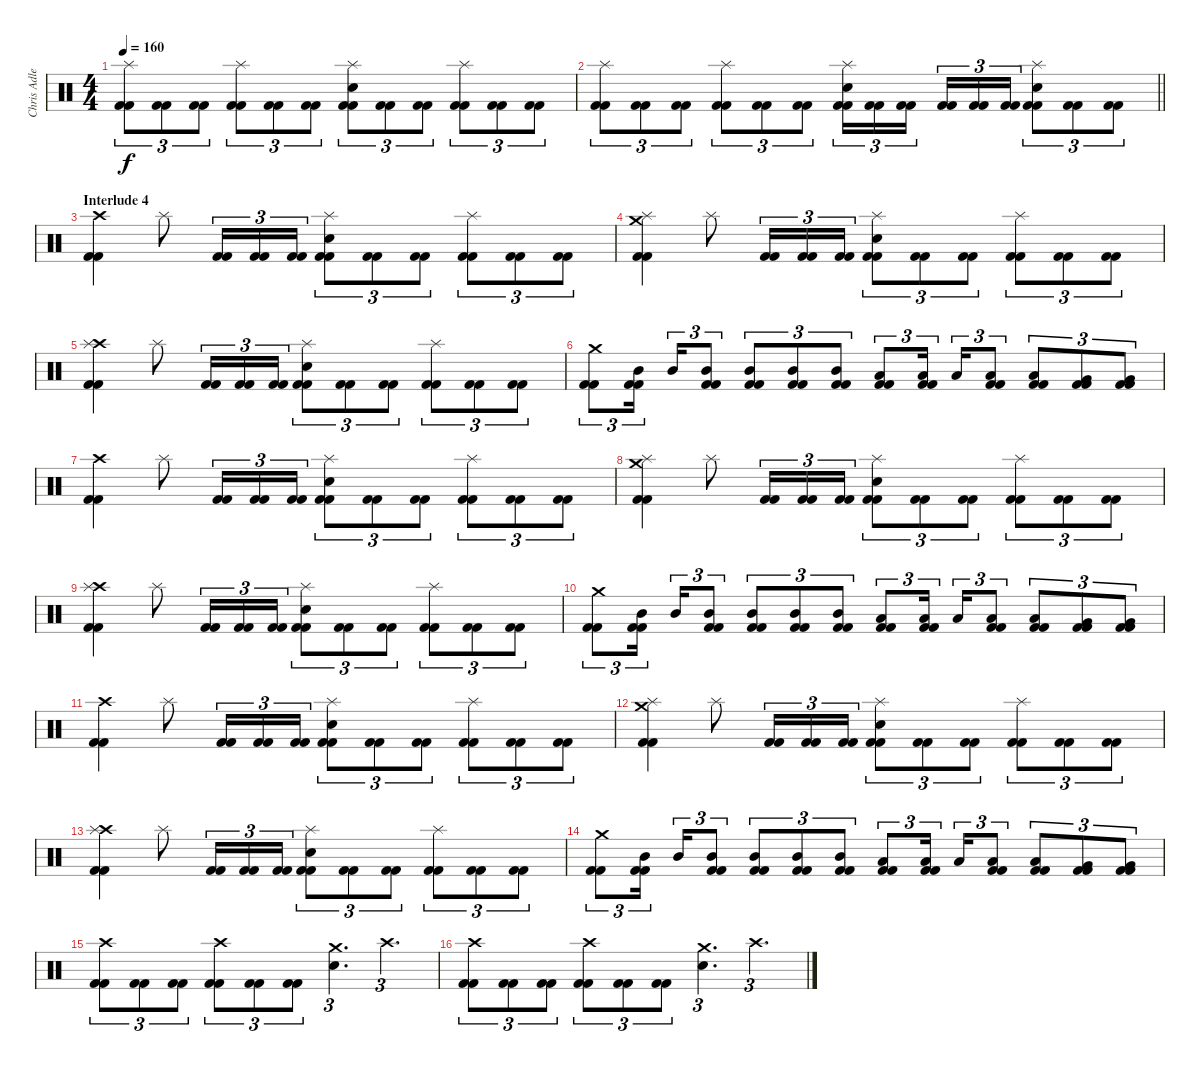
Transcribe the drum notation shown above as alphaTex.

\track ("Chris Adler" "Chris Adle") {instrument percussion}
\staff {score}
\articulation defaults
\ts (4 4)
\tempo 160
\clef neutral
\ks c
("Splash (hit)" "Kick (hit) 2" "Kick (hit) 2").8{tu (3 2) dy f} ("Kick (hit) 2" "Kick (hit) 2").8{tu (3 2)} ("Kick (hit) 2" "Kick (hit) 2").8{tu (3 2)} ("Splash (hit)" "Kick (hit) 2" "Kick (hit) 2").8{tu (3 2)} ("Kick (hit) 2" "Kick (hit) 2").8{tu (3 2)} ("Kick (hit) 2" "Kick (hit) 2").8{tu (3 2)} ("Splash (hit)" "Electric Snare (hit)" "Kick (hit) 2" "Kick (hit) 2").8{tu (3 2)} ("Kick (hit) 2" "Kick (hit) 2").8{tu (3 2)} ("Kick (hit) 2" "Kick (hit) 2").8{tu (3 2)} ("Splash (hit)" "Kick (hit) 2" "Kick (hit) 2").8{tu (3 2)} ("Kick (hit) 2" "Kick (hit) 2").8{tu (3 2)} ("Kick (hit) 2" "Kick (hit) 2").8{tu (3 2)} |
\barLineRight lightlight
("Splash (hit)" "Kick (hit) 2" "Kick (hit) 2").8{tu (3 2)} ("Kick (hit) 2" "Kick (hit) 2").8{tu (3 2)} ("Kick (hit) 2" "Kick (hit) 2").8{tu (3 2)} ("Splash (hit)" "Kick (hit) 2" "Kick (hit) 2").8{tu (3 2)} ("Kick (hit) 2" "Kick (hit) 2").8{tu (3 2)} ("Kick (hit) 2" "Kick (hit) 2").8{tu (3 2)} ("Splash (hit)" "Electric Snare (hit)" "Kick (hit) 2" "Kick (hit) 2").16{tu (3 2)} ("Kick (hit) 2" "Kick (hit) 2").16{tu (3 2)} ("Kick (hit) 2" "Kick (hit) 2").16{tu (3 2) beam splitsecondary} ("Kick (hit) 2" "Kick (hit) 2").16{tu (3 2)} ("Kick (hit) 2" "Kick (hit) 2").16{tu (3 2)} ("Kick (hit) 2" "Kick (hit) 2").16{tu (3 2)} ("Splash (hit)" "Electric Snare (hit)" "Kick (hit) 2" "Kick (hit) 2").8{tu (3 2)} ("Kick (hit) 2" "Kick (hit) 2").8{tu (3 2)} ("Kick (hit) 2" "Kick (hit) 2").8{tu (3 2)} |
\section ("" "Interlude 4")
("Crash high (hit)" "Kick (hit) 2" "Kick (hit) 2").4 "Splash (hit)".8 ("Kick (hit) 2" "Kick (hit) 2").16{tu (3 2)} ("Kick (hit) 2" "Kick (hit) 2").16{tu (3 2)} ("Kick (hit) 2" "Kick (hit) 2").16{tu (3 2)} ("Splash (hit)" "Electric Snare (hit)" "Kick (hit) 2" "Kick (hit) 2").8{tu (3 2)} ("Kick (hit) 2" "Kick (hit) 2").8{tu (3 2)} ("Kick (hit) 2" "Kick (hit) 2").8{tu (3 2)} ("Splash (hit)" "Kick (hit) 2" "Kick (hit) 2").8{tu (3 2)} ("Kick (hit) 2" "Kick (hit) 2").8{tu (3 2)} ("Kick (hit) 2" "Kick (hit) 2").8{tu (3 2)} |
("Crash medium (hit)" "Splash (hit)" "Kick (hit) 2" "Kick (hit) 2").4 "Splash (hit)".8 ("Kick (hit) 2" "Kick (hit) 2").16{tu (3 2)} ("Kick (hit) 2" "Kick (hit) 2").16{tu (3 2)} ("Kick (hit) 2" "Kick (hit) 2").16{tu (3 2)} ("Splash (hit)" "Electric Snare (hit)" "Kick (hit) 2" "Kick (hit) 2").8{tu (3 2)} ("Kick (hit) 2" "Kick (hit) 2").8{tu (3 2)} ("Kick (hit) 2" "Kick (hit) 2").8{tu (3 2)} ("Splash (hit)" "Kick (hit) 2" "Kick (hit) 2").8{tu (3 2)} ("Kick (hit) 2" "Kick (hit) 2").8{tu (3 2)} ("Kick (hit) 2" "Kick (hit) 2").8{tu (3 2)} |
("Crash high (hit)" "Splash (hit)" "Kick (hit) 2" "Kick (hit) 2").4 "Splash (hit)".8 ("Kick (hit) 2" "Kick (hit) 2").16{tu (3 2)} ("Kick (hit) 2" "Kick (hit) 2").16{tu (3 2)} ("Kick (hit) 2" "Kick (hit) 2").16{tu (3 2)} ("Splash (hit)" "Electric Snare (hit)" "Kick (hit) 2" "Kick (hit) 2").8{tu (3 2)} ("Kick (hit) 2" "Kick (hit) 2").8{tu (3 2)} ("Kick (hit) 2" "Kick (hit) 2").8{tu (3 2)} ("Splash (hit)" "Kick (hit) 2" "Kick (hit) 2").8{tu (3 2)} ("Kick (hit) 2" "Kick (hit) 2").8{tu (3 2)} ("Kick (hit) 2" "Kick (hit) 2").8{tu (3 2)} |
("Crash medium (hit)" "Kick (hit) 2" "Kick (hit) 2").8{tu (3 2)} ("Mid Tom (hit)" "Kick (hit) 2" "Kick (hit) 2").16{tu (3 2) beam splitsecondary} "Mid Tom (hit)".16{tu (3 2)} ("Mid Tom (hit)" "Kick (hit) 2" "Kick (hit) 2").8{tu (3 2)} ("Mid Tom (hit)" "Kick (hit) 2" "Kick (hit) 2").8{tu (3 2)} ("Mid Tom (hit)" "Kick (hit) 2" "Kick (hit) 2").8{tu (3 2)} ("Mid Tom (hit)" "Kick (hit) 2" "Kick (hit) 2").8{tu (3 2)} ("Low Tom (hit)" "Kick (hit) 2" "Kick (hit) 2").8{tu (3 2)} ("Low Tom (hit)" "Kick (hit) 2" "Kick (hit) 2").16{tu (3 2) beam splitsecondary} "Low Tom (hit)".16{tu (3 2)} ("Low Tom (hit)" "Kick (hit) 2" "Kick (hit) 2").8{tu (3 2)} ("Low Tom (hit)" "Kick (hit) 2" "Kick (hit) 2").8{tu (3 2)} ("Very Low Tom (hit)" "Kick (hit) 2" "Kick (hit) 2").8{tu (3 2)} ("Very Low Tom (hit)" "Kick (hit) 2" "Kick (hit) 2").8{tu (3 2)} |
("Crash high (hit)" "Kick (hit) 2" "Kick (hit) 2").4 "Splash (hit)".8 ("Kick (hit) 2" "Kick (hit) 2").16{tu (3 2)} ("Kick (hit) 2" "Kick (hit) 2").16{tu (3 2)} ("Kick (hit) 2" "Kick (hit) 2").16{tu (3 2)} ("Splash (hit)" "Electric Snare (hit)" "Kick (hit) 2" "Kick (hit) 2").8{tu (3 2)} ("Kick (hit) 2" "Kick (hit) 2").8{tu (3 2)} ("Kick (hit) 2" "Kick (hit) 2").8{tu (3 2)} ("Splash (hit)" "Kick (hit) 2" "Kick (hit) 2").8{tu (3 2)} ("Kick (hit) 2" "Kick (hit) 2").8{tu (3 2)} ("Kick (hit) 2" "Kick (hit) 2").8{tu (3 2)} |
("Crash medium (hit)" "Splash (hit)" "Kick (hit) 2" "Kick (hit) 2").4 "Splash (hit)".8 ("Kick (hit) 2" "Kick (hit) 2").16{tu (3 2)} ("Kick (hit) 2" "Kick (hit) 2").16{tu (3 2)} ("Kick (hit) 2" "Kick (hit) 2").16{tu (3 2)} ("Splash (hit)" "Electric Snare (hit)" "Kick (hit) 2" "Kick (hit) 2").8{tu (3 2)} ("Kick (hit) 2" "Kick (hit) 2").8{tu (3 2)} ("Kick (hit) 2" "Kick (hit) 2").8{tu (3 2)} ("Splash (hit)" "Kick (hit) 2" "Kick (hit) 2").8{tu (3 2)} ("Kick (hit) 2" "Kick (hit) 2").8{tu (3 2)} ("Kick (hit) 2" "Kick (hit) 2").8{tu (3 2)} |
("Crash high (hit)" "Splash (hit)" "Kick (hit) 2" "Kick (hit) 2").4 "Splash (hit)".8 ("Kick (hit) 2" "Kick (hit) 2").16{tu (3 2)} ("Kick (hit) 2" "Kick (hit) 2").16{tu (3 2)} ("Kick (hit) 2" "Kick (hit) 2").16{tu (3 2)} ("Splash (hit)" "Electric Snare (hit)" "Kick (hit) 2" "Kick (hit) 2").8{tu (3 2)} ("Kick (hit) 2" "Kick (hit) 2").8{tu (3 2)} ("Kick (hit) 2" "Kick (hit) 2").8{tu (3 2)} ("Splash (hit)" "Kick (hit) 2" "Kick (hit) 2").8{tu (3 2)} ("Kick (hit) 2" "Kick (hit) 2").8{tu (3 2)} ("Kick (hit) 2" "Kick (hit) 2").8{tu (3 2)} |
("Crash medium (hit)" "Kick (hit) 2" "Kick (hit) 2").8{tu (3 2)} ("Mid Tom (hit)" "Kick (hit) 2" "Kick (hit) 2").16{tu (3 2) beam splitsecondary} "Mid Tom (hit)".16{tu (3 2)} ("Mid Tom (hit)" "Kick (hit) 2" "Kick (hit) 2").8{tu (3 2)} ("Mid Tom (hit)" "Kick (hit) 2" "Kick (hit) 2").8{tu (3 2)} ("Mid Tom (hit)" "Kick (hit) 2" "Kick (hit) 2").8{tu (3 2)} ("Mid Tom (hit)" "Kick (hit) 2" "Kick (hit) 2").8{tu (3 2)} ("Low Tom (hit)" "Kick (hit) 2" "Kick (hit) 2").8{tu (3 2)} ("Low Tom (hit)" "Kick (hit) 2" "Kick (hit) 2").16{tu (3 2) beam splitsecondary} "Low Tom (hit)".16{tu (3 2)} ("Low Tom (hit)" "Kick (hit) 2" "Kick (hit) 2").8{tu (3 2)} ("Low Tom (hit)" "Kick (hit) 2" "Kick (hit) 2").8{tu (3 2)} ("Very Low Tom (hit)" "Kick (hit) 2" "Kick (hit) 2").8{tu (3 2)} ("Very Low Tom (hit)" "Kick (hit) 2" "Kick (hit) 2").8{tu (3 2)} |
("Crash high (hit)" "Kick (hit) 2" "Kick (hit) 2").4 "Splash (hit)".8 ("Kick (hit) 2" "Kick (hit) 2").16{tu (3 2)} ("Kick (hit) 2" "Kick (hit) 2").16{tu (3 2)} ("Kick (hit) 2" "Kick (hit) 2").16{tu (3 2)} ("Splash (hit)" "Electric Snare (hit)" "Kick (hit) 2" "Kick (hit) 2").8{tu (3 2)} ("Kick (hit) 2" "Kick (hit) 2").8{tu (3 2)} ("Kick (hit) 2" "Kick (hit) 2").8{tu (3 2)} ("Splash (hit)" "Kick (hit) 2" "Kick (hit) 2").8{tu (3 2)} ("Kick (hit) 2" "Kick (hit) 2").8{tu (3 2)} ("Kick (hit) 2" "Kick (hit) 2").8{tu (3 2)} |
("Crash medium (hit)" "Splash (hit)" "Kick (hit) 2" "Kick (hit) 2").4 "Splash (hit)".8 ("Kick (hit) 2" "Kick (hit) 2").16{tu (3 2)} ("Kick (hit) 2" "Kick (hit) 2").16{tu (3 2)} ("Kick (hit) 2" "Kick (hit) 2").16{tu (3 2)} ("Splash (hit)" "Electric Snare (hit)" "Kick (hit) 2" "Kick (hit) 2").8{tu (3 2)} ("Kick (hit) 2" "Kick (hit) 2").8{tu (3 2)} ("Kick (hit) 2" "Kick (hit) 2").8{tu (3 2)} ("Splash (hit)" "Kick (hit) 2" "Kick (hit) 2").8{tu (3 2)} ("Kick (hit) 2" "Kick (hit) 2").8{tu (3 2)} ("Kick (hit) 2" "Kick (hit) 2").8{tu (3 2)} |
("Crash high (hit)" "Splash (hit)" "Kick (hit) 2" "Kick (hit) 2").4 "Splash (hit)".8 ("Kick (hit) 2" "Kick (hit) 2").16{tu (3 2)} ("Kick (hit) 2" "Kick (hit) 2").16{tu (3 2)} ("Kick (hit) 2" "Kick (hit) 2").16{tu (3 2)} ("Splash (hit)" "Electric Snare (hit)" "Kick (hit) 2" "Kick (hit) 2").8{tu (3 2)} ("Kick (hit) 2" "Kick (hit) 2").8{tu (3 2)} ("Kick (hit) 2" "Kick (hit) 2").8{tu (3 2)} ("Splash (hit)" "Kick (hit) 2" "Kick (hit) 2").8{tu (3 2)} ("Kick (hit) 2" "Kick (hit) 2").8{tu (3 2)} ("Kick (hit) 2" "Kick (hit) 2").8{tu (3 2)} |
("Crash medium (hit)" "Kick (hit) 2" "Kick (hit) 2").8{tu (3 2)} ("Mid Tom (hit)" "Kick (hit) 2" "Kick (hit) 2").16{tu (3 2) beam splitsecondary} "Mid Tom (hit)".16{tu (3 2)} ("Mid Tom (hit)" "Kick (hit) 2" "Kick (hit) 2").8{tu (3 2)} ("Mid Tom (hit)" "Kick (hit) 2" "Kick (hit) 2").8{tu (3 2)} ("Mid Tom (hit)" "Kick (hit) 2" "Kick (hit) 2").8{tu (3 2)} ("Mid Tom (hit)" "Kick (hit) 2" "Kick (hit) 2").8{tu (3 2)} ("Low Tom (hit)" "Kick (hit) 2" "Kick (hit) 2").8{tu (3 2)} ("Low Tom (hit)" "Kick (hit) 2" "Kick (hit) 2").16{tu (3 2) beam splitsecondary} "Low Tom (hit)".16{tu (3 2)} ("Low Tom (hit)" "Kick (hit) 2" "Kick (hit) 2").8{tu (3 2)} ("Low Tom (hit)" "Kick (hit) 2" "Kick (hit) 2").8{tu (3 2)} ("Very Low Tom (hit)" "Kick (hit) 2" "Kick (hit) 2").8{tu (3 2)} ("Very Low Tom (hit)" "Kick (hit) 2" "Kick (hit) 2").8{tu (3 2)} |
("Crash high (hit)" "Kick (hit) 2" "Kick (hit) 2").8{tu (3 2)} ("Kick (hit) 2" "Kick (hit) 2").8{tu (3 2)} ("Kick (hit) 2" "Kick (hit) 2").8{tu (3 2)} ("Crash high (hit)" "Kick (hit) 2" "Kick (hit) 2").8{tu (3 2)} ("Kick (hit) 2" "Kick (hit) 2").8{tu (3 2)} ("Kick (hit) 2" "Kick (hit) 2").8{tu (3 2)} ("Crash medium (hit)" "Electric Snare (hit)").4{d tu (3 2)} "Crash high (hit)".4{d tu (3 2)} |
("Crash high (hit)" "Kick (hit) 2" "Kick (hit) 2").8{tu (3 2)} ("Kick (hit) 2" "Kick (hit) 2").8{tu (3 2)} ("Kick (hit) 2" "Kick (hit) 2").8{tu (3 2)} ("Crash high (hit)" "Kick (hit) 2" "Kick (hit) 2").8{tu (3 2)} ("Kick (hit) 2" "Kick (hit) 2").8{tu (3 2)} ("Kick (hit) 2" "Kick (hit) 2").8{tu (3 2)} ("Crash medium (hit)" "Electric Snare (hit)").4{d tu (3 2)} "Crash high (hit)".4{d tu (3 2)}
